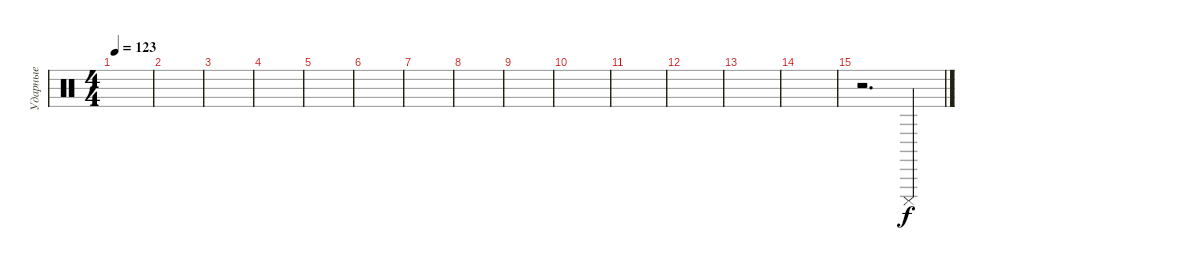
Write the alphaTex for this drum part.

\track ("Ударные" "Ударные") {instrument percussion}
\staff {score}
\articulation defaults
\ts (4 4)
\tempo 123
\clef neutral
\ks c
|
|
|
|
|
|
|
|
|
|
|
|
|
|
r.2{d} "Cuica (mute)".4
